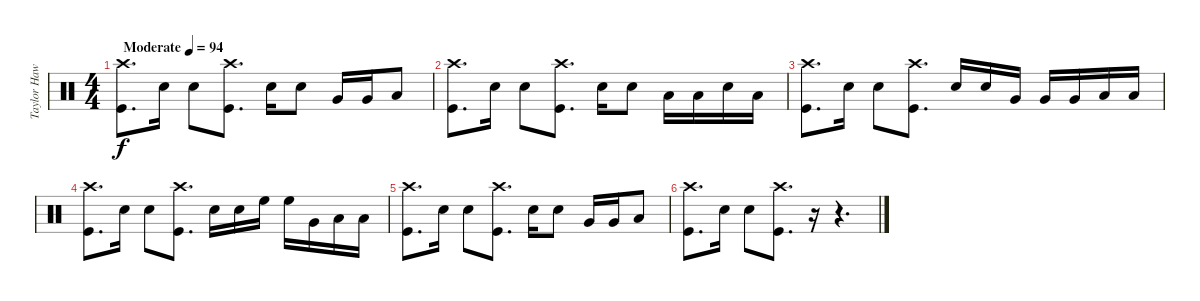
\track ("Taylor Hawkins - Drums" "Taylor Haw") {instrument percussion}
\staff {score}
\articulation defaults
\ts (4 4)
\tempo (94 "Moderate")
\clef neutral
\ks c
("Crash high (hit)" "Kick (hit)").8{d dy f} "Electric Snare (hit)".16 "Electric Snare (hit)".8 ("Crash high (hit)" "Kick (hit)").8{d} "Electric Snare (hit)".16 "Electric Snare (hit)".8 "Very Low Tom (hit)".16 "Very Low Tom (hit)".16 "Low Floor Tom (hit)".8 |
("Crash high (hit)" "Kick (hit)").8{d} "Electric Snare (hit)".16 "Electric Snare (hit)".8 ("Crash high (hit)" "Kick (hit)").8{d} "Electric Snare (hit)".16 "Electric Snare (hit)".8 "Low Tom (hit)".16 "Low Tom (hit)".16 "Electric Snare (hit)".16 "Low Floor Tom (hit)".16 |
("Crash high (hit)" "Kick (hit)").8{d} "Electric Snare (hit)".16 "Electric Snare (hit)".8 ("Crash high (hit)" "Kick (hit)").8{d} "Electric Snare (hit)".16 "Electric Snare (hit)".16 "Very Low Tom (hit)".16 "Very Low Tom (hit)".16 "Very Low Tom (hit)".16 "Low Floor Tom (hit)".16 "Low Floor Tom (hit)".16 |
("Crash high (hit)" "Kick (hit)").8{d} "Electric Snare (hit)".16 "Electric Snare (hit)".8 ("Crash high (hit)" "Kick (hit)").8{d} "Electric Snare (hit)".16 "Electric Snare (hit)".16 "High Floor Tom (hit)".16 "High Floor Tom (hit)".16 "Very Low Tom (hit)".16 "Low Floor Tom (hit)".16 "Low Floor Tom (hit)".16 |
("Crash high (hit)" "Kick (hit)").8{d} "Electric Snare (hit)".16 "Electric Snare (hit)".8 ("Crash high (hit)" "Kick (hit)").8{d} "Electric Snare (hit)".16 "Electric Snare (hit)".8 "Very Low Tom (hit)".16 "Very Low Tom (hit)".16 "Low Floor Tom (hit)".8 |
("Crash high (hit)" "Kick (hit)").8{d} "Electric Snare (hit)".16 "Electric Snare (hit)".8 ("Crash high (hit)" "Kick (hit)").8{d} r.16 r.4{d}
